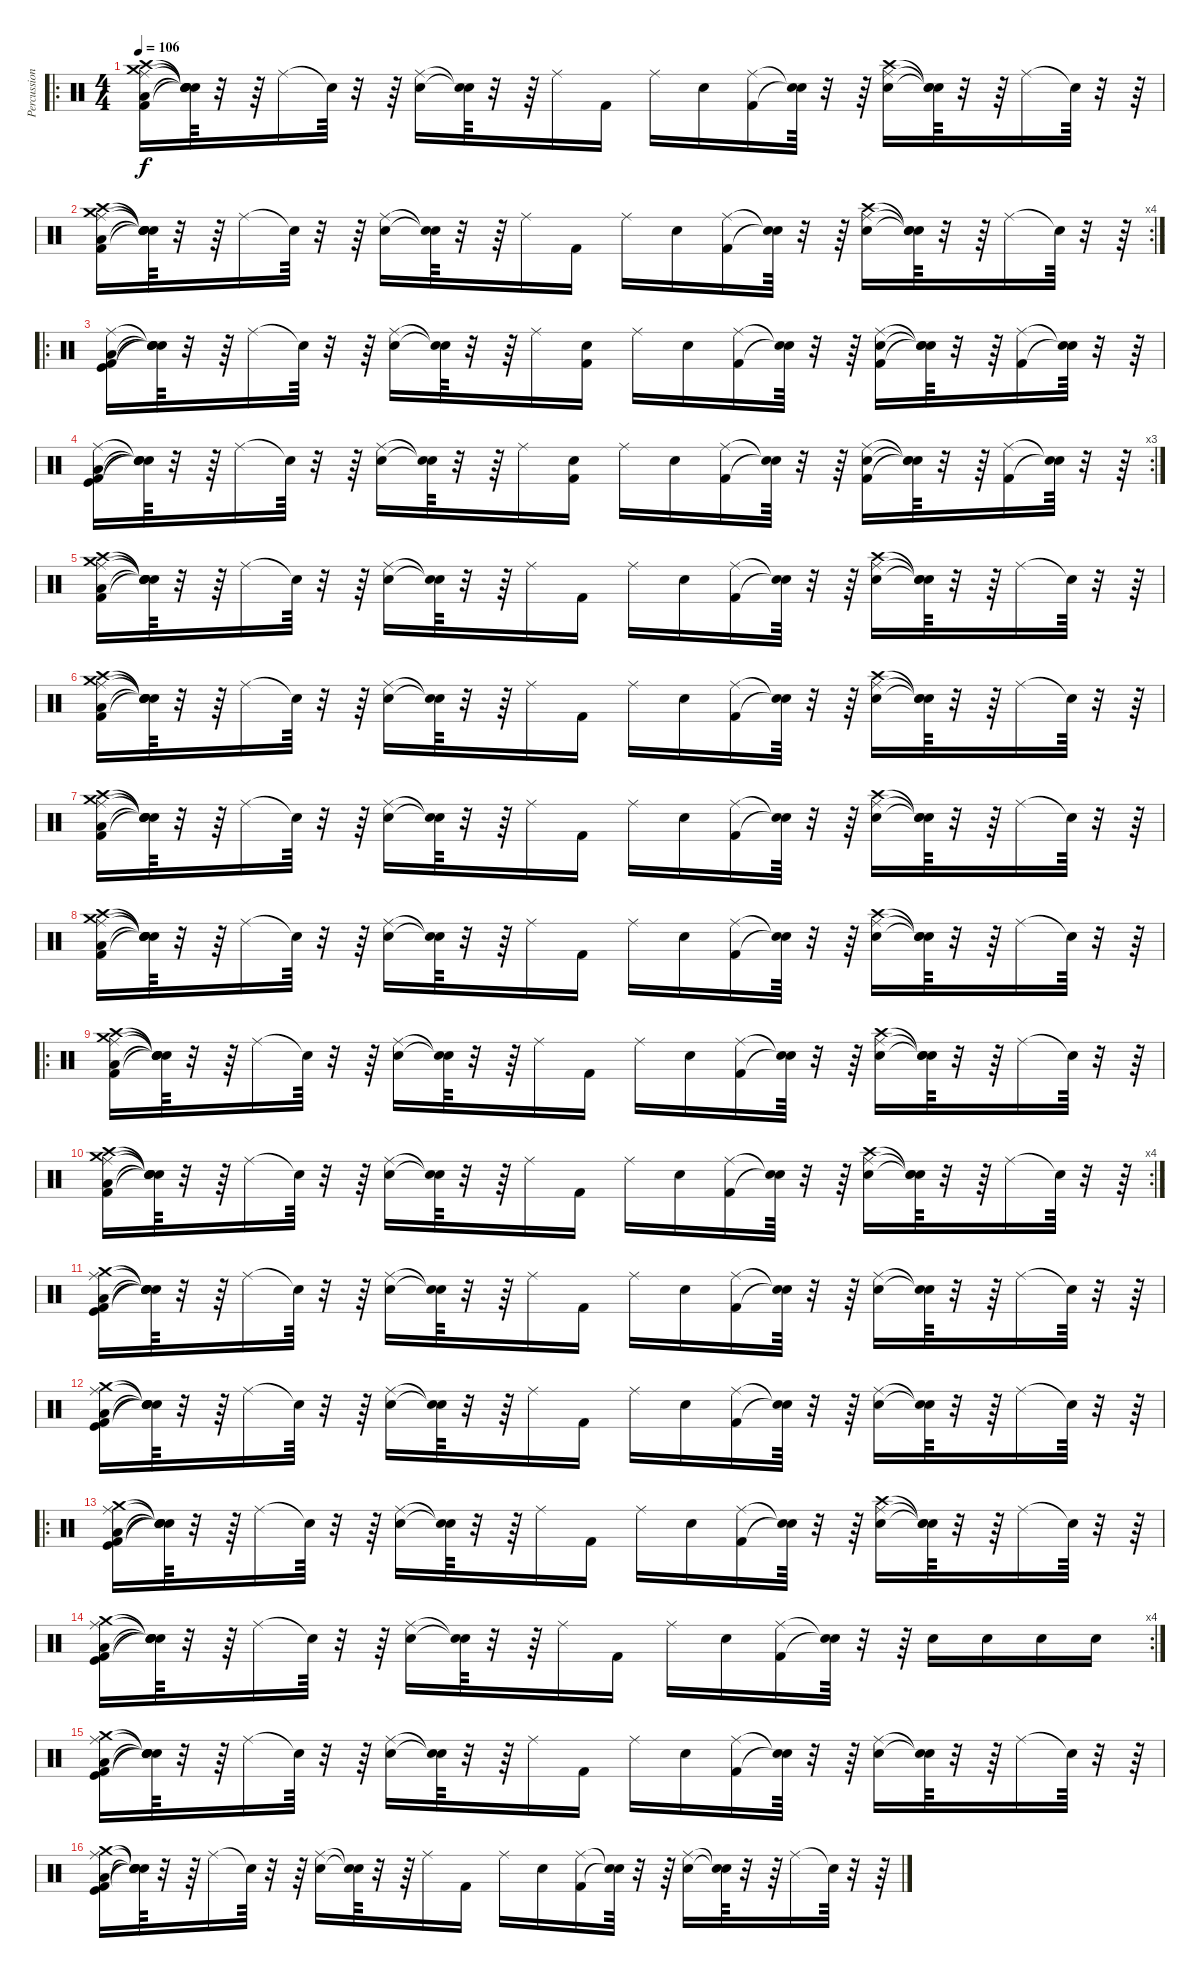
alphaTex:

\track ("Percussion" "Percussion") {instrument percussion}
\staff {score}
\articulation defaults
\ro
\ts (4 4)
\tempo 106
\clef neutral
\ks c
("Kick (hit) 2" "Low Tom (hit)" "Crash high (hit)" "Ride (middle)" "Crash medium (hit)").16{dy f} ("Snare (hit)"{t} "Snare (hit)"{t} "Snare (hit)"{t} "Snare (hit)"{t} "Snare (hit)"{t}).64 r.32 r.64 "Ride (middle)".16 "Snare (hit)"{t}.64 r.32 r.64 ("Snare (hit) 2" "Ride (middle)").16 ("Snare (hit)"{t} "Snare (hit)"{t}).64 r.32 r.64 "Ride (middle)".16 "Kick (hit) 2".16 "Ride (middle)".16 "Snare (hit) 2".16 ("Kick (hit) 2" "Ride (middle)").16 ("Snare (hit)"{t} "Snare (hit)"{t}).64 r.32 r.64 ("Ride (middle)" "Snare (hit) 2" "Crash high (hit)").16 ("Snare (hit)"{t} "Snare (hit)"{t} "Snare (hit)"{t}).64 r.32 r.64 "Ride (middle)".16 "Snare (hit)"{t}.64 r.32 r.64 |
\rc 4
("Kick (hit) 2" "Low Tom (hit)" "Crash high (hit)" "Ride (middle)" "Crash medium (hit)").16 ("Snare (hit)"{t} "Snare (hit)"{t} "Snare (hit)"{t} "Snare (hit)"{t} "Snare (hit)"{t}).64 r.32 r.64 "Ride (middle)".16 "Snare (hit)"{t}.64 r.32 r.64 ("Snare (hit) 2" "Ride (middle)").16 ("Snare (hit)"{t} "Snare (hit)"{t}).64 r.32 r.64 "Ride (middle)".16 "Kick (hit) 2".16 "Ride (middle)".16 "Snare (hit) 2".16 ("Kick (hit) 2" "Ride (middle)").16 ("Snare (hit)"{t} "Snare (hit)"{t}).64 r.32 r.64 ("Ride (middle)" "Snare (hit) 2" "Crash high (hit)").16 ("Snare (hit)"{t} "Snare (hit)"{t} "Snare (hit)"{t}).64 r.32 r.64 "Ride (middle)".16 "Snare (hit)"{t}.64 r.32 r.64 |
\ro
("Kick (hit) 2" "Low Tom (hit)" "Kick (hit)" "Ride (middle)").16 ("Snare (hit)"{t} "Snare (hit)"{t} "Snare (hit)"{t} "Snare (hit)"{t}).64 r.32 r.64 "Ride (middle)".16 "Snare (hit)"{t}.64 r.32 r.64 ("Snare (hit) 2" "Ride (middle)").16 ("Snare (hit)"{t} "Snare (hit)"{t}).64 r.32 r.64 "Ride (middle)".16 ("Kick (hit) 2" "Snare (hit) 2").16 "Ride (middle)".16 "Snare (hit) 2".16 ("Kick (hit) 2" "Ride (middle)").16 ("Snare (hit)"{t} "Snare (hit)"{t}).64 r.32 r.64 ("Ride (middle)" "Snare (hit) 2" "Kick (hit) 2").16 ("Snare (hit)"{t} "Snare (hit)"{t} "Snare (hit)"{t}).64 r.32 r.64 ("Ride (middle)" "Kick (hit) 2").16 ("Snare (hit)"{t} "Snare (hit)"{t}).64 r.32 r.64 |
\rc 3
("Kick (hit) 2" "Low Tom (hit)" "Kick (hit)" "Ride (middle)").16 ("Snare (hit)"{t} "Snare (hit)"{t} "Snare (hit)"{t} "Snare (hit)"{t}).64 r.32 r.64 "Ride (middle)".16 "Snare (hit)"{t}.64 r.32 r.64 ("Snare (hit) 2" "Ride (middle)").16 ("Snare (hit)"{t} "Snare (hit)"{t}).64 r.32 r.64 "Ride (middle)".16 ("Kick (hit) 2" "Snare (hit) 2").16 "Ride (middle)".16 "Snare (hit) 2".16 ("Kick (hit) 2" "Ride (middle)").16 ("Snare (hit)"{t} "Snare (hit)"{t}).64 r.32 r.64 ("Ride (middle)" "Snare (hit) 2" "Kick (hit) 2").16 ("Snare (hit)"{t} "Snare (hit)"{t} "Snare (hit)"{t}).64 r.32 r.64 ("Ride (middle)" "Kick (hit) 2").16 ("Snare (hit)"{t} "Snare (hit)"{t}).64 r.32 r.64 |
("Kick (hit) 2" "Low Tom (hit)" "Crash high (hit)" "Ride (middle)" "Crash medium (hit)").16 ("Snare (hit)"{t} "Snare (hit)"{t} "Snare (hit)"{t} "Snare (hit)"{t} "Snare (hit)"{t}).64 r.32 r.64 "Ride (middle)".16 "Snare (hit)"{t}.64 r.32 r.64 ("Snare (hit) 2" "Ride (middle)").16 ("Snare (hit)"{t} "Snare (hit)"{t}).64 r.32 r.64 "Ride (middle)".16 "Kick (hit) 2".16 "Ride (middle)".16 "Snare (hit) 2".16 ("Kick (hit) 2" "Ride (middle)").16 ("Snare (hit)"{t} "Snare (hit)"{t}).64 r.32 r.64 ("Ride (middle)" "Snare (hit) 2" "Crash high (hit)").16 ("Snare (hit)"{t} "Snare (hit)"{t} "Snare (hit)"{t}).64 r.32 r.64 "Ride (middle)".16 "Snare (hit)"{t}.64 r.32 r.64 |
("Kick (hit) 2" "Low Tom (hit)" "Crash high (hit)" "Ride (middle)" "Crash medium (hit)").16 ("Snare (hit)"{t} "Snare (hit)"{t} "Snare (hit)"{t} "Snare (hit)"{t} "Snare (hit)"{t}).64 r.32 r.64 "Ride (middle)".16 "Snare (hit)"{t}.64 r.32 r.64 ("Snare (hit) 2" "Ride (middle)").16 ("Snare (hit)"{t} "Snare (hit)"{t}).64 r.32 r.64 "Ride (middle)".16 "Kick (hit) 2".16 "Ride (middle)".16 "Snare (hit) 2".16 ("Kick (hit) 2" "Ride (middle)").16 ("Snare (hit)"{t} "Snare (hit)"{t}).64 r.32 r.64 ("Ride (middle)" "Snare (hit) 2" "Crash high (hit)").16 ("Snare (hit)"{t} "Snare (hit)"{t} "Snare (hit)"{t}).64 r.32 r.64 "Ride (middle)".16 "Snare (hit)"{t}.64 r.32 r.64 |
("Kick (hit) 2" "Low Tom (hit)" "Crash high (hit)" "Ride (middle)" "Crash medium (hit)").16 ("Snare (hit)"{t} "Snare (hit)"{t} "Snare (hit)"{t} "Snare (hit)"{t} "Snare (hit)"{t}).64 r.32 r.64 "Ride (middle)".16 "Snare (hit)"{t}.64 r.32 r.64 ("Snare (hit) 2" "Ride (middle)").16 ("Snare (hit)"{t} "Snare (hit)"{t}).64 r.32 r.64 "Ride (middle)".16 "Kick (hit) 2".16 "Ride (middle)".16 "Snare (hit) 2".16 ("Kick (hit) 2" "Ride (middle)").16 ("Snare (hit)"{t} "Snare (hit)"{t}).64 r.32 r.64 ("Ride (middle)" "Snare (hit) 2" "Crash high (hit)").16 ("Snare (hit)"{t} "Snare (hit)"{t} "Snare (hit)"{t}).64 r.32 r.64 "Ride (middle)".16 "Snare (hit)"{t}.64 r.32 r.64 |
("Kick (hit) 2" "Low Tom (hit)" "Crash high (hit)" "Ride (middle)" "Crash medium (hit)").16 ("Snare (hit)"{t} "Snare (hit)"{t} "Snare (hit)"{t} "Snare (hit)"{t} "Snare (hit)"{t}).64 r.32 r.64 "Ride (middle)".16 "Snare (hit)"{t}.64 r.32 r.64 ("Snare (hit) 2" "Ride (middle)").16 ("Snare (hit)"{t} "Snare (hit)"{t}).64 r.32 r.64 "Ride (middle)".16 "Kick (hit) 2".16 "Ride (middle)".16 "Snare (hit) 2".16 ("Kick (hit) 2" "Ride (middle)").16 ("Snare (hit)"{t} "Snare (hit)"{t}).64 r.32 r.64 ("Ride (middle)" "Snare (hit) 2" "Crash high (hit)").16 ("Snare (hit)"{t} "Snare (hit)"{t} "Snare (hit)"{t}).64 r.32 r.64 "Ride (middle)".16 "Snare (hit)"{t}.64 r.32 r.64 |
\ro
("Kick (hit) 2" "Low Tom (hit)" "Crash high (hit)" "Ride (middle)" "Crash medium (hit)").16 ("Snare (hit)"{t} "Snare (hit)"{t} "Snare (hit)"{t} "Snare (hit)"{t} "Snare (hit)"{t}).64 r.32 r.64 "Ride (middle)".16 "Snare (hit)"{t}.64 r.32 r.64 ("Snare (hit) 2" "Ride (middle)").16 ("Snare (hit)"{t} "Snare (hit)"{t}).64 r.32 r.64 "Ride (middle)".16 "Kick (hit) 2".16 "Ride (middle)".16 "Snare (hit) 2".16 ("Kick (hit) 2" "Ride (middle)").16 ("Snare (hit)"{t} "Snare (hit)"{t}).64 r.32 r.64 ("Ride (middle)" "Snare (hit) 2" "Crash high (hit)").16 ("Snare (hit)"{t} "Snare (hit)"{t} "Snare (hit)"{t}).64 r.32 r.64 "Ride (middle)".16 "Snare (hit)"{t}.64 r.32 r.64 |
\rc 4
("Kick (hit) 2" "Low Tom (hit)" "Crash high (hit)" "Ride (middle)" "Crash medium (hit)").16 ("Snare (hit)"{t} "Snare (hit)"{t} "Snare (hit)"{t} "Snare (hit)"{t} "Snare (hit)"{t}).64 r.32 r.64 "Ride (middle)".16 "Snare (hit)"{t}.64 r.32 r.64 ("Snare (hit) 2" "Ride (middle)").16 ("Snare (hit)"{t} "Snare (hit)"{t}).64 r.32 r.64 "Ride (middle)".16 "Kick (hit) 2".16 "Ride (middle)".16 "Snare (hit) 2".16 ("Kick (hit) 2" "Ride (middle)").16 ("Snare (hit)"{t} "Snare (hit)"{t}).64 r.32 r.64 ("Ride (middle)" "Snare (hit) 2" "Crash high (hit)").16 ("Snare (hit)"{t} "Snare (hit)"{t} "Snare (hit)"{t}).64 r.32 r.64 "Ride (middle)".16 "Snare (hit)"{t}.64 r.32 r.64 |
("Kick (hit) 2" "Low Tom (hit)" "Kick (hit)" "Ride (middle)" "Crash medium (hit)").16 ("Snare (hit)"{t} "Snare (hit)"{t} "Snare (hit)"{t} "Snare (hit)"{t} "Snare (hit)"{t}).64 r.32 r.64 "Ride (middle)".16 "Snare (hit)"{t}.64 r.32 r.64 ("Snare (hit) 2" "Ride (middle)").16 ("Snare (hit)"{t} "Snare (hit)"{t}).64 r.32 r.64 "Ride (middle)".16 "Kick (hit) 2".16 "Ride (middle)".16 "Snare (hit) 2".16 ("Kick (hit) 2" "Ride (middle)").16 ("Snare (hit)"{t} "Snare (hit)"{t}).64 r.32 r.64 ("Ride (middle)" "Snare (hit) 2").16 ("Snare (hit)"{t} "Snare (hit)"{t}).64 r.32 r.64 "Ride (middle)".16 "Snare (hit)"{t}.64 r.32 r.64 |
("Kick (hit) 2" "Low Tom (hit)" "Kick (hit)" "Ride (middle)" "Crash medium (hit)").16 ("Snare (hit)"{t} "Snare (hit)"{t} "Snare (hit)"{t} "Snare (hit)"{t} "Snare (hit)"{t}).64 r.32 r.64 "Ride (middle)".16 "Snare (hit)"{t}.64 r.32 r.64 ("Snare (hit) 2" "Ride (middle)").16 ("Snare (hit)"{t} "Snare (hit)"{t}).64 r.32 r.64 "Ride (middle)".16 "Kick (hit) 2".16 "Ride (middle)".16 "Snare (hit) 2".16 ("Kick (hit) 2" "Ride (middle)").16 ("Snare (hit)"{t} "Snare (hit)"{t}).64 r.32 r.64 ("Ride (middle)" "Snare (hit) 2").16 ("Snare (hit)"{t} "Snare (hit)"{t}).64 r.32 r.64 "Ride (middle)".16 "Snare (hit)"{t}.64 r.32 r.64 |
\ro
("Kick (hit) 2" "Low Tom (hit)" "Kick (hit)" "Ride (middle)" "Crash medium (hit)").16 ("Snare (hit)"{t} "Snare (hit)"{t} "Snare (hit)"{t} "Snare (hit)"{t} "Snare (hit)"{t}).64 r.32 r.64 "Ride (middle)".16 "Snare (hit)"{t}.64 r.32 r.64 ("Snare (hit) 2" "Ride (middle)").16 ("Snare (hit)"{t} "Snare (hit)"{t}).64 r.32 r.64 "Ride (middle)".16 "Kick (hit) 2".16 "Ride (middle)".16 "Snare (hit) 2".16 ("Kick (hit) 2" "Ride (middle)").16 ("Snare (hit)"{t} "Snare (hit)"{t}).64 r.32 r.64 ("Ride (middle)" "Snare (hit) 2" "Crash high (hit)").16 ("Snare (hit)"{t} "Snare (hit)"{t} "Snare (hit)"{t}).64 r.32 r.64 "Ride (middle)".16 "Snare (hit)"{t}.64 r.32 r.64 |
\rc 4
("Kick (hit) 2" "Low Tom (hit)" "Kick (hit)" "Ride (middle)" "Crash medium (hit)").16 ("Snare (hit)"{t} "Snare (hit)"{t} "Snare (hit)"{t} "Snare (hit)"{t} "Snare (hit)"{t}).64 r.32 r.64 "Ride (middle)".16 "Snare (hit)"{t}.64 r.32 r.64 ("Snare (hit) 2" "Ride (middle)").16 ("Snare (hit)"{t} "Snare (hit)"{t}).64 r.32 r.64 "Ride (middle)".16 "Kick (hit) 2".16 "Ride (middle)".16 "Snare (hit) 2".16 ("Kick (hit) 2" "Ride (middle)").16 ("Snare (hit)"{t} "Snare (hit)"{t}).64 r.32 r.64 "Snare (hit) 2".16 "Snare (hit) 2".16 "Snare (hit) 2".16 "Snare (hit) 2".16 |
("Kick (hit) 2" "Low Tom (hit)" "Kick (hit)" "Ride (middle)" "Crash medium (hit)").16 ("Snare (hit)"{t} "Snare (hit)"{t} "Snare (hit)"{t} "Snare (hit)"{t} "Snare (hit)"{t}).64 r.32 r.64 "Ride (middle)".16 "Snare (hit)"{t}.64 r.32 r.64 ("Snare (hit) 2" "Ride (middle)").16 ("Snare (hit)"{t} "Snare (hit)"{t}).64 r.32 r.64 "Ride (middle)".16 "Kick (hit) 2".16 "Ride (middle)".16 "Snare (hit) 2".16 ("Kick (hit) 2" "Ride (middle)").16 ("Snare (hit)"{t} "Snare (hit)"{t}).64 r.32 r.64 ("Ride (middle)" "Snare (hit) 2").16 ("Snare (hit)"{t} "Snare (hit)"{t}).64 r.32 r.64 "Ride (middle)".16 "Snare (hit)"{t}.64 r.32 r.64 |
("Kick (hit) 2" "Low Tom (hit)" "Kick (hit)" "Ride (middle)" "Crash medium (hit)").16 ("Snare (hit)"{t} "Snare (hit)"{t} "Snare (hit)"{t} "Snare (hit)"{t} "Snare (hit)"{t}).64 r.32 r.64 "Ride (middle)".16 "Snare (hit)"{t}.64 r.32 r.64 ("Snare (hit) 2" "Ride (middle)").16 ("Snare (hit)"{t} "Snare (hit)"{t}).64 r.32 r.64 "Ride (middle)".16 "Kick (hit) 2".16 "Ride (middle)".16 "Snare (hit) 2".16 ("Kick (hit) 2" "Ride (middle)").16 ("Snare (hit)"{t} "Snare (hit)"{t}).64 r.32 r.64 ("Ride (middle)" "Snare (hit) 2").16 ("Snare (hit)"{t} "Snare (hit)"{t}).64 r.32 r.64 "Ride (middle)".16 "Snare (hit)"{t}.64 r.32 r.64
